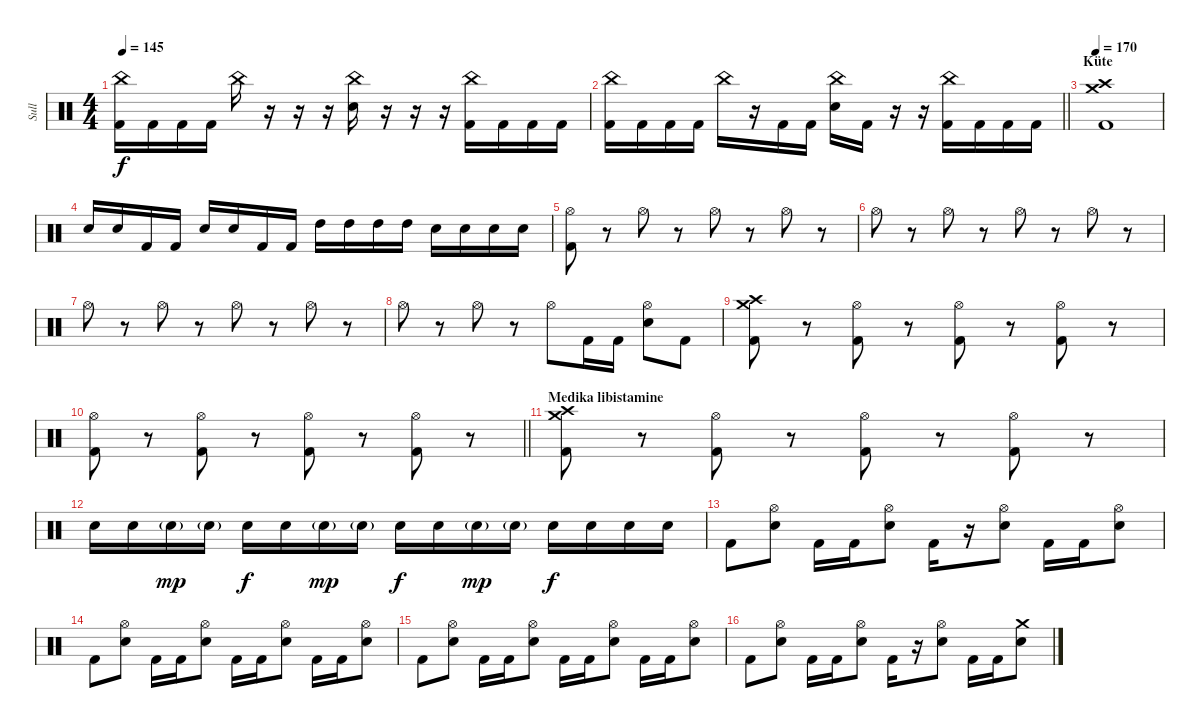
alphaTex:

\track ("Sull" "Sull") {instrument percussion}
\staff {score}
\articulation defaults
\ts (4 4)
\tempo 145
\clef neutral
\ks c
("China (hit)" "Kick (hit) 2").16{dy f} "Kick (hit) 2".16 "Kick (hit) 2".16 "Kick (hit) 2".16 "China (hit)".16 r.16 r.16 r.16 ("China (hit)" "Electric Snare (hit)").16 r.16 r.16 r.16 ("China (hit)" "Kick (hit) 2").16 "Kick (hit) 2".16 "Kick (hit) 2".16 "Kick (hit) 2".16 |
\barLineRight lightlight
("China (hit)" "Kick (hit) 2").16 "Kick (hit) 2".16 "Kick (hit) 2".16 "Kick (hit) 2".16 "China (hit)".16 r.16 "Kick (hit) 2".16 "Kick (hit) 2".16 ("China (hit)" "Electric Snare (hit)").16 "Kick (hit) 2".16 r.16 r.16 ("China (hit)" "Kick (hit) 2").16 "Kick (hit) 2".16 "Kick (hit) 2".16 "Kick (hit) 2".16 |
\section ("" "Küte")
\tempo 170
("Crash medium (hit)" "Crash high (hit)" "Kick (hit) 2").1 |
"Electric Snare (hit)".16 "Electric Snare (hit)".16 "Kick (hit) 2".16 "Kick (hit) 2".16 "Electric Snare (hit)".16 "Electric Snare (hit)".16 "Kick (hit) 2".16 "Kick (hit) 2".16 "High Tom (hit)".16 "High Tom (hit)".16 "High Tom (hit)".16 "High Tom (hit)".16 "Electric Snare (hit)".16 "Electric Snare (hit)".16 "Electric Snare (hit)".16 "Electric Snare (hit)".16 |
("Hi-Hat (open)" "Kick (hit) 2").8 r.8 "Hi-Hat (open)".8 r.8 "Hi-Hat (open)".8 r.8 "Hi-Hat (open)".8 r.8 |
"Hi-Hat (open)".8 r.8 "Hi-Hat (open)".8 r.8 "Hi-Hat (open)".8 r.8 "Hi-Hat (open)".8 r.8 |
"Hi-Hat (open)".8 r.8 "Hi-Hat (open)".8 r.8 "Hi-Hat (open)".8 r.8 "Hi-Hat (open)".8 r.8 |
"Hi-Hat (open)".8 r.8 "Hi-Hat (open)".8 r.8 "Hi-Hat (open)".8 "Kick (hit) 2".16 "Kick (hit) 2".16 ("Hi-Hat (open)" "Electric Snare (hit)").8 "Kick (hit) 2".8 |
("Crash medium (hit)" "Crash high (hit)" "Kick (hit) 2").8 r.8 ("Hi-Hat (open)" "Kick (hit) 2").8 r.8 ("Hi-Hat (open)" "Kick (hit) 2").8 r.8 ("Hi-Hat (open)" "Kick (hit) 2").8 r.8 |
\barLineRight lightlight
("Hi-Hat (open)" "Kick (hit) 2").8 r.8 ("Hi-Hat (open)" "Kick (hit) 2").8 r.8 ("Hi-Hat (open)" "Kick (hit) 2").8 r.8 ("Hi-Hat (open)" "Kick (hit) 2").8 r.8 |
\section ("" "Medika libistamine")
("Crash medium (hit)" "Crash high (hit)" "Kick (hit) 2").8 r.8 ("Hi-Hat (open)" "Kick (hit) 2").8 r.8 ("Hi-Hat (open)" "Kick (hit) 2").8 r.8 ("Hi-Hat (open)" "Kick (hit) 2").8 r.8 |
"Electric Snare (hit)".16 "Electric Snare (hit)".16 "Electric Snare (hit)"{g}.16{dy mp} "Electric Snare (hit)"{g}.16 "Electric Snare (hit)".16{dy f} "Electric Snare (hit)".16 "Electric Snare (hit)"{g}.16{dy mp} "Electric Snare (hit)"{g}.16 "Electric Snare (hit)".16{dy f} "Electric Snare (hit)".16 "Electric Snare (hit)"{g}.16{dy mp} "Electric Snare (hit)"{g}.16 "Electric Snare (hit)".16{dy f} "Electric Snare (hit)".16 "Electric Snare (hit)".16 "Electric Snare (hit)".16 |
"Kick (hit) 2".8 ("Hi-Hat (open)" "Electric Snare (hit)").8 "Kick (hit) 2".16 "Kick (hit) 2".16 ("Hi-Hat (open)" "Electric Snare (hit)").8 "Kick (hit) 2".16 r.16 ("Hi-Hat (open)" "Electric Snare (hit)").8 "Kick (hit) 2".16 "Kick (hit) 2".16 ("Hi-Hat (open)" "Electric Snare (hit)").8 |
"Kick (hit) 2".8 ("Hi-Hat (open)" "Electric Snare (hit)").8 "Kick (hit) 2".16 "Kick (hit) 2".16 ("Hi-Hat (open)" "Electric Snare (hit)").8 "Kick (hit) 2".16 "Kick (hit) 2".16 ("Hi-Hat (open)" "Electric Snare (hit)").8 "Kick (hit) 2".16 "Kick (hit) 2".16 ("Hi-Hat (open)" "Electric Snare (hit)").8 |
"Kick (hit) 2".8 ("Hi-Hat (open)" "Electric Snare (hit)").8 "Kick (hit) 2".16 "Kick (hit) 2".16 ("Hi-Hat (open)" "Electric Snare (hit)").8 "Kick (hit) 2".16 "Kick (hit) 2".16 ("Hi-Hat (open)" "Electric Snare (hit)").8 "Kick (hit) 2".16 "Kick (hit) 2".16 ("Hi-Hat (open)" "Electric Snare (hit)").8 |
"Kick (hit) 2".8 ("Hi-Hat (open)" "Electric Snare (hit)").8 "Kick (hit) 2".16 "Kick (hit) 2".16 ("Hi-Hat (open)" "Electric Snare (hit)").8 "Kick (hit) 2".16 r.16 ("Hi-Hat (open)" "Electric Snare (hit)").8 "Kick (hit) 2".16 "Kick (hit) 2".16 ("Crash medium (hit)" "Electric Snare (hit)").8
